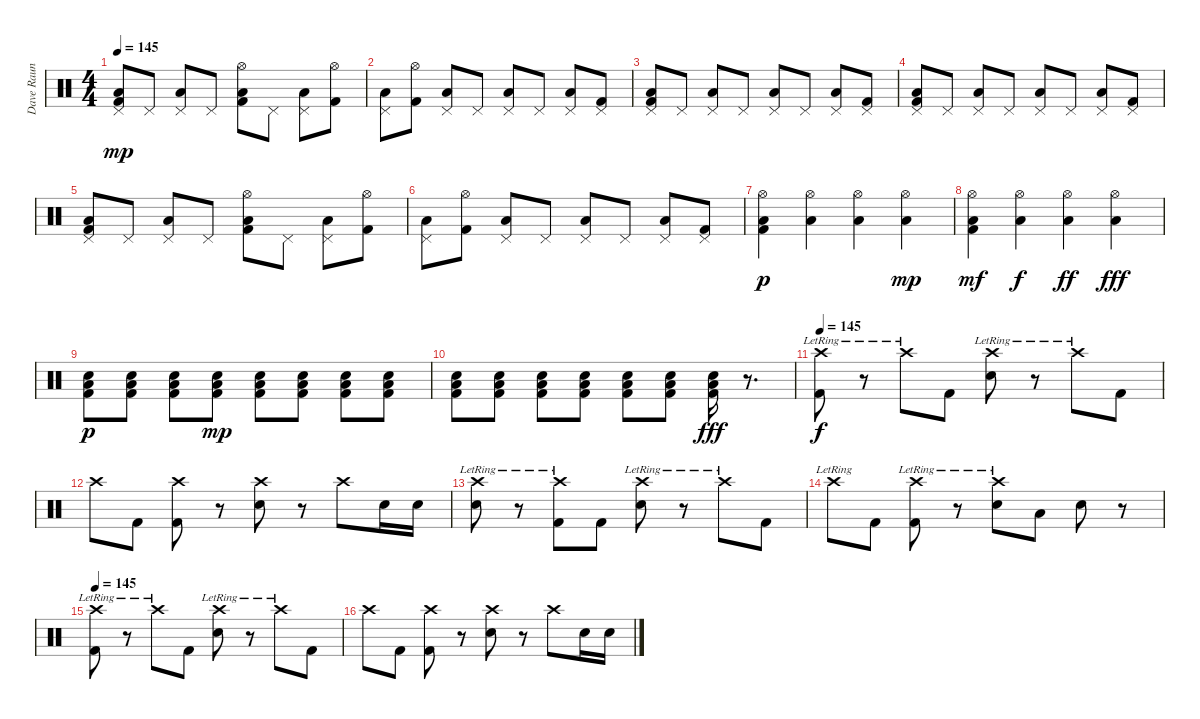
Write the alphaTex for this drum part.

\track ("Dave Raun" "Dave Raun") {instrument percussion}
\staff {score}
\articulation defaults
\ts (4 4)
\tempo 145
\clef neutral
\ks c
("Low Floor Tom (hit)" "Kick (hit) 2" "Pedal Hi-Hat (hit)").8{dy mp} "Pedal Hi-Hat (hit)".8 ("Low Floor Tom (hit)" "Pedal Hi-Hat (hit)").8 "Pedal Hi-Hat (hit)".8 ("Low Floor Tom (hit)" "Kick (hit) 2" "Hi-Hat (open)").8 "Pedal Hi-Hat (hit)".8 ("Low Floor Tom (hit)" "Pedal Hi-Hat (hit)").8 ("Kick (hit) 2" "Hi-Hat (open)").8 |
("Low Floor Tom (hit)" "Pedal Hi-Hat (hit)").8 ("Kick (hit) 2" "Hi-Hat (open)").8 ("Low Floor Tom (hit)" "Pedal Hi-Hat (hit)").8 "Pedal Hi-Hat (hit)".8 ("Low Floor Tom (hit)" "Pedal Hi-Hat (hit)").8 "Pedal Hi-Hat (hit)".8 ("Low Floor Tom (hit)" "Pedal Hi-Hat (hit)").8 ("Kick (hit) 2" "Pedal Hi-Hat (hit)").8 |
("Low Floor Tom (hit)" "Kick (hit) 2" "Pedal Hi-Hat (hit)").8 "Pedal Hi-Hat (hit)".8 ("Low Floor Tom (hit)" "Pedal Hi-Hat (hit)").8 "Pedal Hi-Hat (hit)".8 ("Low Floor Tom (hit)" "Pedal Hi-Hat (hit)").8 "Pedal Hi-Hat (hit)".8 ("Low Floor Tom (hit)" "Pedal Hi-Hat (hit)").8 ("Kick (hit) 2" "Pedal Hi-Hat (hit)").8 |
("Low Floor Tom (hit)" "Kick (hit) 2" "Pedal Hi-Hat (hit)").8 "Pedal Hi-Hat (hit)".8 ("Low Floor Tom (hit)" "Pedal Hi-Hat (hit)").8 "Pedal Hi-Hat (hit)".8 ("Low Floor Tom (hit)" "Pedal Hi-Hat (hit)").8 "Pedal Hi-Hat (hit)".8 ("Low Floor Tom (hit)" "Pedal Hi-Hat (hit)").8 ("Kick (hit) 2" "Pedal Hi-Hat (hit)").8 |
("Low Floor Tom (hit)" "Kick (hit) 2" "Pedal Hi-Hat (hit)").8 "Pedal Hi-Hat (hit)".8 ("Low Floor Tom (hit)" "Pedal Hi-Hat (hit)").8 "Pedal Hi-Hat (hit)".8 ("Low Floor Tom (hit)" "Kick (hit) 2" "Hi-Hat (open)").8 "Pedal Hi-Hat (hit)".8 ("Low Floor Tom (hit)" "Pedal Hi-Hat (hit)").8 ("Kick (hit) 2" "Hi-Hat (open)").8 |
("Low Floor Tom (hit)" "Pedal Hi-Hat (hit)").8 ("Kick (hit) 2" "Hi-Hat (open)").8 ("Low Floor Tom (hit)" "Pedal Hi-Hat (hit)").8 "Pedal Hi-Hat (hit)".8 ("Low Floor Tom (hit)" "Pedal Hi-Hat (hit)").8 "Pedal Hi-Hat (hit)".8 ("Low Floor Tom (hit)" "Pedal Hi-Hat (hit)").8 ("Kick (hit) 2" "Pedal Hi-Hat (hit)").8 |
("Low Floor Tom (hit)" "Kick (hit) 2" "Hi-Hat (open)").4{dy p} ("Low Floor Tom (hit)" "Hi-Hat (open)").4 ("Low Floor Tom (hit)" "Hi-Hat (open)").4 ("Low Floor Tom (hit)" "Hi-Hat (open)").4{dy mp} |
("Low Floor Tom (hit)" "Kick (hit) 2" "Hi-Hat (open)").4{dy mf} ("Low Floor Tom (hit)" "Hi-Hat (open)").4{dy f} ("Low Floor Tom (hit)" "Hi-Hat (open)").4{dy ff} ("Low Floor Tom (hit)" "Hi-Hat (open)").4{dy fff} |
("Electric Snare (hit)" "Low Floor Tom (hit)" "Kick (hit) 2").8{dy p} ("Electric Snare (hit)" "Low Floor Tom (hit)" "Kick (hit) 2").8 ("Electric Snare (hit)" "Low Floor Tom (hit)" "Kick (hit) 2").8 ("Electric Snare (hit)" "Low Floor Tom (hit)" "Kick (hit) 2").8{dy mp} ("Electric Snare (hit)" "Low Floor Tom (hit)" "Kick (hit) 2").8 ("Electric Snare (hit)" "Low Floor Tom (hit)" "Kick (hit) 2").8 ("Electric Snare (hit)" "Low Floor Tom (hit)" "Kick (hit) 2").8 ("Electric Snare (hit)" "Low Floor Tom (hit)" "Kick (hit) 2").8 |
("Electric Snare (hit)" "Low Floor Tom (hit)" "Kick (hit) 2").8 ("Electric Snare (hit)" "Low Floor Tom (hit)" "Kick (hit) 2").8 ("Electric Snare (hit)" "Low Floor Tom (hit)" "Kick (hit) 2").8 ("Electric Snare (hit)" "Low Floor Tom (hit)" "Kick (hit) 2").8 ("Electric Snare (hit)" "Low Floor Tom (hit)" "Kick (hit) 2").8 ("Electric Snare (hit)" "Low Floor Tom (hit)" "Kick (hit) 2").8 ("Electric Snare (hit)" "Low Floor Tom (hit)" "Kick (hit) 2").16{dy fff} r.8{d} |
\tempo 145
("Crash high (hit)"{lr} "Kick (hit) 2").8{dy f} r.8 "Crash high (hit)"{lr}.8 "Kick (hit) 2".8 ("Crash high (hit)"{lr} "Electric Snare (hit)").8 r.8 "Crash high (hit)"{lr}.8 "Kick (hit) 2".8 |
"Crash high (hit)".8 "Kick (hit) 2".8 ("Crash high (hit)" "Kick (hit) 2").8 r.8 ("Crash high (hit)" "Electric Snare (hit)").8 r.8 "Crash high (hit)".8 "Electric Snare (hit)".16 "Electric Snare (hit)".16 |
("Crash high (hit)"{lr} "Electric Snare (hit)").8 r.8 ("Crash high (hit)"{lr} "Kick (hit) 2").8 "Kick (hit) 2".8 ("Crash high (hit)"{lr} "Electric Snare (hit)").8 r.8 "Crash high (hit)"{lr}.8 "Kick (hit) 2".8 |
"Crash high (hit)"{lr}.8 "Kick (hit) 2".8 ("Crash high (hit)"{lr} "Kick (hit) 2").8 r.8 ("Crash high (hit)"{lr} "Electric Snare (hit)").8 "Low Floor Tom (hit)".8 "Electric Snare (hit)".8 r.8 |
\tempo 145
("Crash high (hit)"{lr} "Kick (hit) 2").8 r.8 "Crash high (hit)"{lr}.8 "Kick (hit) 2".8 ("Crash high (hit)"{lr} "Electric Snare (hit)").8 r.8 "Crash high (hit)"{lr}.8 "Kick (hit) 2".8 |
"Crash high (hit)".8 "Kick (hit) 2".8 ("Crash high (hit)" "Kick (hit) 2").8 r.8 ("Crash high (hit)" "Electric Snare (hit)").8 r.8 "Crash high (hit)".8 "Electric Snare (hit)".16 "Electric Snare (hit)".16
